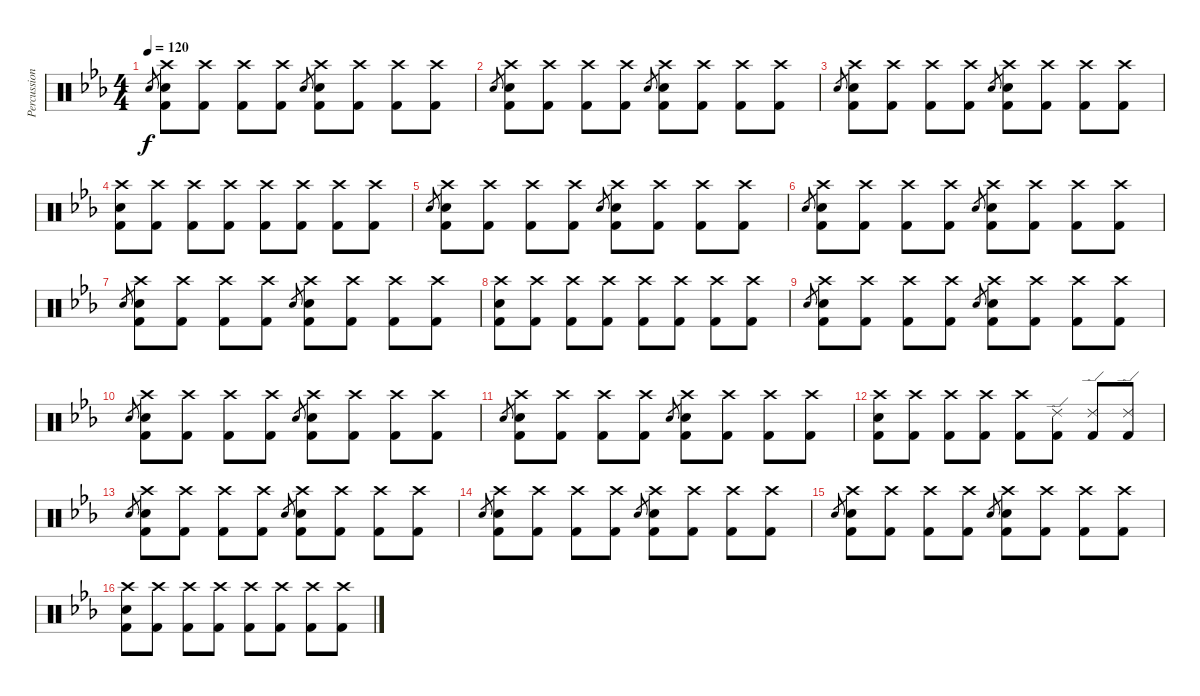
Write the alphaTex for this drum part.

\track ("Percussion" "Percussion") {instrument percussion}
\staff {score}
\articulation defaults
\ts (4 4)
\tempo 120
\clef neutral
\ks eb "Electric Snare (hit)".8{gr dy f}
("Crash high (hit)" "Electric Snare (hit)" "Kick (hit) 2").8 ("Crash high (hit)" "Kick (hit) 2").8 ("Crash high (hit)" "Kick (hit) 2").8 ("Crash high (hit)" "Kick (hit) 2").8 "Electric Snare (hit)".8{gr} ("Crash high (hit)" "Electric Snare (hit)" "Kick (hit) 2").8 ("Crash high (hit)" "Kick (hit) 2").8 ("Crash high (hit)" "Kick (hit) 2").8 ("Crash high (hit)" "Kick (hit) 2").8 |
"Electric Snare (hit)".8{gr} ("Crash high (hit)" "Electric Snare (hit)" "Kick (hit) 2").8 ("Crash high (hit)" "Kick (hit) 2").8 ("Crash high (hit)" "Kick (hit) 2").8 ("Crash high (hit)" "Kick (hit) 2").8 "Electric Snare (hit)".8{gr} ("Crash high (hit)" "Electric Snare (hit)" "Kick (hit) 2").8 ("Crash high (hit)" "Kick (hit) 2").8 ("Crash high (hit)" "Kick (hit) 2").8 ("Crash high (hit)" "Kick (hit) 2").8 |
"Electric Snare (hit)".8{gr} ("Crash high (hit)" "Electric Snare (hit)" "Kick (hit) 2").8 ("Crash high (hit)" "Kick (hit) 2").8 ("Crash high (hit)" "Kick (hit) 2").8 ("Crash high (hit)" "Kick (hit) 2").8 "Electric Snare (hit)".8{gr} ("Crash high (hit)" "Electric Snare (hit)" "Kick (hit) 2").8 ("Crash high (hit)" "Kick (hit) 2").8 ("Crash high (hit)" "Kick (hit) 2").8 ("Crash high (hit)" "Kick (hit) 2").8 |
("Crash high (hit)" "Electric Snare (hit)" "Kick (hit) 2").8 ("Crash high (hit)" "Kick (hit) 2").8 ("Crash high (hit)" "Kick (hit) 2").8 ("Crash high (hit)" "Kick (hit) 2").8 ("Crash high (hit)" "Kick (hit) 2").8 ("Crash high (hit)" "Kick (hit) 2").8 ("Crash high (hit)" "Kick (hit) 2").8 ("Crash high (hit)" "Kick (hit) 2").8 |
"Electric Snare (hit)".8{gr} ("Crash high (hit)" "Electric Snare (hit)" "Kick (hit) 2").8 ("Crash high (hit)" "Kick (hit) 2").8 ("Crash high (hit)" "Kick (hit) 2").8 ("Crash high (hit)" "Kick (hit) 2").8 "Electric Snare (hit)".8{gr} ("Crash high (hit)" "Electric Snare (hit)" "Kick (hit) 2").8 ("Crash high (hit)" "Kick (hit) 2").8 ("Crash high (hit)" "Kick (hit) 2").8 ("Crash high (hit)" "Kick (hit) 2").8 |
"Electric Snare (hit)".8{gr} ("Crash high (hit)" "Electric Snare (hit)" "Kick (hit) 2").8 ("Crash high (hit)" "Kick (hit) 2").8 ("Crash high (hit)" "Kick (hit) 2").8 ("Crash high (hit)" "Kick (hit) 2").8 "Electric Snare (hit)".8{gr} ("Crash high (hit)" "Electric Snare (hit)" "Kick (hit) 2").8 ("Crash high (hit)" "Kick (hit) 2").8 ("Crash high (hit)" "Kick (hit) 2").8 ("Crash high (hit)" "Kick (hit) 2").8 |
"Electric Snare (hit)".8{gr} ("Crash high (hit)" "Electric Snare (hit)" "Kick (hit) 2").8 ("Crash high (hit)" "Kick (hit) 2").8 ("Crash high (hit)" "Kick (hit) 2").8 ("Crash high (hit)" "Kick (hit) 2").8 "Electric Snare (hit)".8{gr} ("Crash high (hit)" "Electric Snare (hit)" "Kick (hit) 2").8 ("Crash high (hit)" "Kick (hit) 2").8 ("Crash high (hit)" "Kick (hit) 2").8 ("Crash high (hit)" "Kick (hit) 2").8 |
("Crash high (hit)" "Electric Snare (hit)" "Kick (hit) 2").8 ("Crash high (hit)" "Kick (hit) 2").8 ("Crash high (hit)" "Kick (hit) 2").8 ("Crash high (hit)" "Kick (hit) 2").8 ("Crash high (hit)" "Kick (hit) 2").8 ("Crash high (hit)" "Kick (hit) 2").8 ("Crash high (hit)" "Kick (hit) 2").8 ("Crash high (hit)" "Kick (hit) 2").8 |
"Electric Snare (hit)".8{gr} ("Crash high (hit)" "Electric Snare (hit)" "Kick (hit) 2").8 ("Crash high (hit)" "Kick (hit) 2").8 ("Crash high (hit)" "Kick (hit) 2").8 ("Crash high (hit)" "Kick (hit) 2").8 "Electric Snare (hit)".8{gr} ("Crash high (hit)" "Electric Snare (hit)" "Kick (hit) 2").8 ("Crash high (hit)" "Kick (hit) 2").8 ("Crash high (hit)" "Kick (hit) 2").8 ("Crash high (hit)" "Kick (hit) 2").8 |
"Electric Snare (hit)".8{gr} ("Crash high (hit)" "Electric Snare (hit)" "Kick (hit) 2").8 ("Crash high (hit)" "Kick (hit) 2").8 ("Crash high (hit)" "Kick (hit) 2").8 ("Crash high (hit)" "Kick (hit) 2").8 "Electric Snare (hit)".8{gr} ("Crash high (hit)" "Electric Snare (hit)" "Kick (hit) 2").8 ("Crash high (hit)" "Kick (hit) 2").8 ("Crash high (hit)" "Kick (hit) 2").8 ("Crash high (hit)" "Kick (hit) 2").8 |
"Electric Snare (hit)".8{gr} ("Crash high (hit)" "Electric Snare (hit)" "Kick (hit) 2").8 ("Crash high (hit)" "Kick (hit) 2").8 ("Crash high (hit)" "Kick (hit) 2").8 ("Crash high (hit)" "Kick (hit) 2").8 "Electric Snare (hit)".8{gr} ("Crash high (hit)" "Electric Snare (hit)" "Kick (hit) 2").8 ("Crash high (hit)" "Kick (hit) 2").8 ("Crash high (hit)" "Kick (hit) 2").8 ("Crash high (hit)" "Kick (hit) 2").8 |
("Crash high (hit)" "Electric Snare (hit)" "Kick (hit) 2").8 ("Crash high (hit)" "Kick (hit) 2").8 ("Crash high (hit)" "Kick (hit) 2").8 ("Crash high (hit)" "Kick (hit) 2").8 ("Crash high (hit)" "Kick (hit) 2").8 ("Ride (edge) 2" "Kick (hit) 2").8 ("Ride (edge) 2" "Kick (hit) 2").8 ("Ride (edge) 2" "Kick (hit) 2").8 |
"Electric Snare (hit)".8{gr} ("Crash high (hit)" "Electric Snare (hit)" "Kick (hit) 2").8 ("Crash high (hit)" "Kick (hit) 2").8 ("Crash high (hit)" "Kick (hit) 2").8 ("Crash high (hit)" "Kick (hit) 2").8 "Electric Snare (hit)".8{gr} ("Crash high (hit)" "Electric Snare (hit)" "Kick (hit) 2").8 ("Crash high (hit)" "Kick (hit) 2").8 ("Crash high (hit)" "Kick (hit) 2").8 ("Crash high (hit)" "Kick (hit) 2").8 |
"Electric Snare (hit)".8{gr} ("Crash high (hit)" "Electric Snare (hit)" "Kick (hit) 2").8 ("Crash high (hit)" "Kick (hit) 2").8 ("Crash high (hit)" "Kick (hit) 2").8 ("Crash high (hit)" "Kick (hit) 2").8 "Electric Snare (hit)".8{gr} ("Crash high (hit)" "Electric Snare (hit)" "Kick (hit) 2").8 ("Crash high (hit)" "Kick (hit) 2").8 ("Crash high (hit)" "Kick (hit) 2").8 ("Crash high (hit)" "Kick (hit) 2").8 |
"Electric Snare (hit)".8{gr} ("Crash high (hit)" "Electric Snare (hit)" "Kick (hit) 2").8 ("Crash high (hit)" "Kick (hit) 2").8 ("Crash high (hit)" "Kick (hit) 2").8 ("Crash high (hit)" "Kick (hit) 2").8 "Electric Snare (hit)".8{gr} ("Crash high (hit)" "Electric Snare (hit)" "Kick (hit) 2").8 ("Crash high (hit)" "Kick (hit) 2").8 ("Crash high (hit)" "Kick (hit) 2").8 ("Crash high (hit)" "Kick (hit) 2").8 |
("Crash high (hit)" "Electric Snare (hit)" "Kick (hit) 2").8 ("Crash high (hit)" "Kick (hit) 2").8 ("Crash high (hit)" "Kick (hit) 2").8 ("Crash high (hit)" "Kick (hit) 2").8 ("Crash high (hit)" "Kick (hit) 2").8 ("Crash high (hit)" "Kick (hit) 2").8 ("Crash high (hit)" "Kick (hit) 2").8 ("Crash high (hit)" "Kick (hit) 2").8
